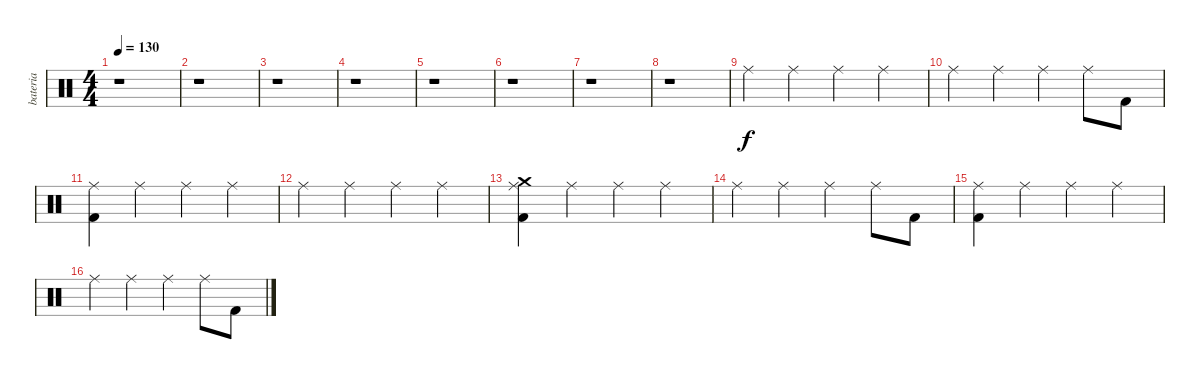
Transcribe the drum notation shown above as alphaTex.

\track ("bateria" "bateria") {instrument percussion}
\staff {score}
\articulation defaults
\ts (4 4)
\tempo 130
\clef neutral
\ks c
r.1{dy f} |
r.1 |
r.1 |
r.1 |
r.1 |
r.1 |
r.1 |
r.1 |
"Ride (middle)".4 "Ride (middle)".4 "Ride (middle)".4 "Ride (middle)".4 |
"Ride (middle)".4 "Ride (middle)".4 "Ride (middle)".4 "Ride (middle)".8 "Kick (hit) 2".8 |
("Ride (middle)" "Kick (hit) 2").4 "Ride (middle)".4 "Ride (middle)".4 "Ride (middle)".4 |
"Ride (middle)".4 "Ride (middle)".4 "Ride (middle)".4 "Ride (middle)".4 |
("Ride (middle)" "Crash medium (hit)" "Kick (hit) 2").4 "Ride (middle)".4 "Ride (middle)".4 "Ride (middle)".4 |
"Ride (middle)".4 "Ride (middle)".4 "Ride (middle)".4 "Ride (middle)".8 "Kick (hit) 2".8 |
("Ride (middle)" "Kick (hit) 2").4 "Ride (middle)".4 "Ride (middle)".4 "Ride (middle)".4 |
"Ride (middle)".4 "Ride (middle)".4 "Ride (middle)".4 "Ride (middle)".8 "Kick (hit) 2".8
